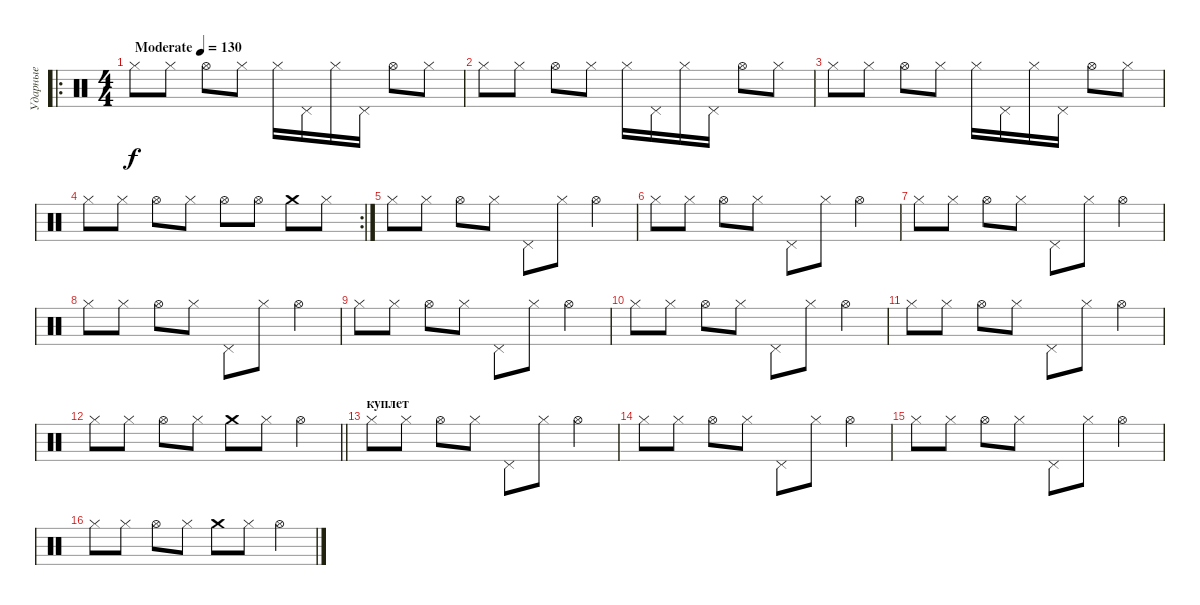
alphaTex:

\track ("Ударные" "Ударные") {instrument percussion}
\staff {score}
\articulation defaults
\ro
\ts (4 4)
\tempo (130 "Moderate")
\clef neutral
\ks c "Hi-Hat (closed)".8{dy f} "Hi-Hat (closed)".8 "Hi-Hat (open)".8 "Hi-Hat (closed)".8 "Hi-Hat (closed)".16 "Pedal Hi-Hat (hit)".16 "Hi-Hat (closed)".16 "Pedal Hi-Hat (hit)".16 "Hi-Hat (open)".8 "Hi-Hat (closed)".8
|
"Hi-Hat (closed)".8 "Hi-Hat (closed)".8 "Hi-Hat (open)".8 "Hi-Hat (closed)".8 "Hi-Hat (closed)".16 "Pedal Hi-Hat (hit)".16 "Hi-Hat (closed)".16 "Pedal Hi-Hat (hit)".16 "Hi-Hat (open)".8 "Hi-Hat (closed)".8 |
"Hi-Hat (closed)".8 "Hi-Hat (closed)".8 "Hi-Hat (open)".8 "Hi-Hat (closed)".8 "Hi-Hat (closed)".16 "Pedal Hi-Hat (hit)".16 "Hi-Hat (closed)".16 "Pedal Hi-Hat (hit)".16 "Hi-Hat (open)".8 "Hi-Hat (closed)".8 |
\rc 2 "Hi-Hat (closed)".8 "Hi-Hat (closed)".8 "Hi-Hat (open)".8 "Hi-Hat (closed)".8 "Hi-Hat (open)".8 "Hi-Hat (open)".8 "Crash medium (hit)".8 "Hi-Hat (closed)".8
|
"Hi-Hat (closed)".8 "Hi-Hat (closed)".8 "Hi-Hat (open)".8 "Hi-Hat (closed)".8 "Pedal Hi-Hat (hit)".8 "Hi-Hat (closed)".8 "Hi-Hat (open)".4 |
"Hi-Hat (closed)".8 "Hi-Hat (closed)".8 "Hi-Hat (open)".8 "Hi-Hat (closed)".8 "Pedal Hi-Hat (hit)".8 "Hi-Hat (closed)".8 "Hi-Hat (open)".4 |
"Hi-Hat (closed)".8 "Hi-Hat (closed)".8 "Hi-Hat (open)".8 "Hi-Hat (closed)".8 "Pedal Hi-Hat (hit)".8 "Hi-Hat (closed)".8 "Hi-Hat (open)".4 |
"Hi-Hat (closed)".8 "Hi-Hat (closed)".8 "Hi-Hat (open)".8 "Hi-Hat (closed)".8 "Pedal Hi-Hat (hit)".8 "Hi-Hat (closed)".8 "Hi-Hat (open)".4 |
"Hi-Hat (closed)".8 "Hi-Hat (closed)".8 "Hi-Hat (open)".8 "Hi-Hat (closed)".8 "Pedal Hi-Hat (hit)".8 "Hi-Hat (closed)".8 "Hi-Hat (open)".4 |
"Hi-Hat (closed)".8 "Hi-Hat (closed)".8 "Hi-Hat (open)".8 "Hi-Hat (closed)".8 "Pedal Hi-Hat (hit)".8 "Hi-Hat (closed)".8 "Hi-Hat (open)".4 |
"Hi-Hat (closed)".8 "Hi-Hat (closed)".8 "Hi-Hat (open)".8 "Hi-Hat (closed)".8 "Pedal Hi-Hat (hit)".8 "Hi-Hat (closed)".8 "Hi-Hat (open)".4 |
\barLineRight lightlight "Hi-Hat (closed)".8 "Hi-Hat (closed)".8 "Hi-Hat (open)".8 "Hi-Hat (closed)".8 "Crash medium (hit)".8 "Hi-Hat (closed)".8 "Hi-Hat (open)".4
|
\section ("" "куплет")
"Hi-Hat (closed)".8 "Hi-Hat (closed)".8 "Hi-Hat (open)".8 "Hi-Hat (closed)".8 "Pedal Hi-Hat (hit)".8 "Hi-Hat (closed)".8 "Hi-Hat (open)".4 |
"Hi-Hat (closed)".8 "Hi-Hat (closed)".8 "Hi-Hat (open)".8 "Hi-Hat (closed)".8 "Pedal Hi-Hat (hit)".8 "Hi-Hat (closed)".8 "Hi-Hat (open)".4 |
"Hi-Hat (closed)".8 "Hi-Hat (closed)".8 "Hi-Hat (open)".8 "Hi-Hat (closed)".8 "Pedal Hi-Hat (hit)".8 "Hi-Hat (closed)".8 "Hi-Hat (open)".4 |
"Hi-Hat (closed)".8 "Hi-Hat (closed)".8 "Hi-Hat (open)".8 "Hi-Hat (closed)".8 "Crash medium (hit)".8 "Hi-Hat (closed)".8 "Hi-Hat (open)".4
